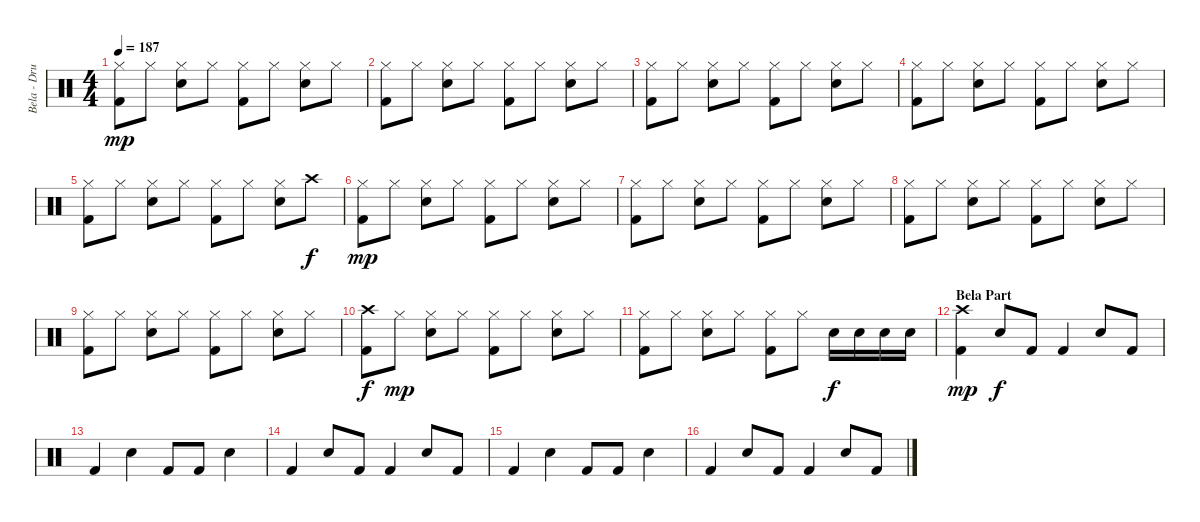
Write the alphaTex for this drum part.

\track ("Bela - Drums" "Bela - Dru") {instrument percussion}
\staff {score}
\articulation defaults
\ts (4 4)
\tempo 187
\clef neutral
\ks c
("Hi-Hat (closed)" "Kick (hit) 2").8{dy mp} "Hi-Hat (closed)".8 ("Hi-Hat (closed)" "Snare (hit) 2").8 "Hi-Hat (closed)".8 ("Hi-Hat (closed)" "Kick (hit) 2").8 "Hi-Hat (closed)".8 ("Hi-Hat (closed)" "Snare (hit) 2").8 "Hi-Hat (closed)".8 |
("Hi-Hat (closed)" "Kick (hit) 2").8 "Hi-Hat (closed)".8 ("Hi-Hat (closed)" "Snare (hit) 2").8 "Hi-Hat (closed)".8 ("Hi-Hat (closed)" "Kick (hit) 2").8 "Hi-Hat (closed)".8 ("Hi-Hat (closed)" "Snare (hit) 2").8 "Hi-Hat (closed)".8 |
("Hi-Hat (closed)" "Kick (hit) 2").8 "Hi-Hat (closed)".8 ("Hi-Hat (closed)" "Snare (hit) 2").8 "Hi-Hat (closed)".8 ("Hi-Hat (closed)" "Kick (hit) 2").8 "Hi-Hat (closed)".8 ("Hi-Hat (closed)" "Snare (hit) 2").8 "Hi-Hat (closed)".8 |
("Hi-Hat (closed)" "Kick (hit) 2").8 "Hi-Hat (closed)".8 ("Hi-Hat (closed)" "Snare (hit) 2").8 "Hi-Hat (closed)".8 ("Hi-Hat (closed)" "Kick (hit) 2").8 "Hi-Hat (closed)".8 ("Hi-Hat (closed)" "Snare (hit) 2").8 "Hi-Hat (closed)".8 |
("Hi-Hat (closed)" "Kick (hit) 2").8 "Hi-Hat (closed)".8 ("Hi-Hat (closed)" "Snare (hit) 2").8 "Hi-Hat (closed)".8 ("Hi-Hat (closed)" "Kick (hit) 2").8 "Hi-Hat (closed)".8 ("Hi-Hat (closed)" "Snare (hit) 2").8 "Crash high (hit)".8{dy f} |
("Hi-Hat (closed)" "Kick (hit) 2").8{dy mp} "Hi-Hat (closed)".8 ("Hi-Hat (closed)" "Snare (hit) 2").8 "Hi-Hat (closed)".8 ("Hi-Hat (closed)" "Kick (hit) 2").8 "Hi-Hat (closed)".8 ("Hi-Hat (closed)" "Snare (hit) 2").8 "Hi-Hat (closed)".8 |
("Hi-Hat (closed)" "Kick (hit) 2").8 "Hi-Hat (closed)".8 ("Hi-Hat (closed)" "Snare (hit) 2").8 "Hi-Hat (closed)".8 ("Hi-Hat (closed)" "Kick (hit) 2").8 "Hi-Hat (closed)".8 ("Hi-Hat (closed)" "Snare (hit) 2").8 "Hi-Hat (closed)".8 |
("Hi-Hat (closed)" "Kick (hit) 2").8 "Hi-Hat (closed)".8 ("Hi-Hat (closed)" "Snare (hit) 2").8 "Hi-Hat (closed)".8 ("Hi-Hat (closed)" "Kick (hit) 2").8 "Hi-Hat (closed)".8 ("Hi-Hat (closed)" "Snare (hit) 2").8 "Hi-Hat (closed)".8 |
("Hi-Hat (closed)" "Kick (hit) 2").8 "Hi-Hat (closed)".8 ("Hi-Hat (closed)" "Snare (hit) 2").8 "Hi-Hat (closed)".8 ("Hi-Hat (closed)" "Kick (hit) 2").8 "Hi-Hat (closed)".8 ("Hi-Hat (closed)" "Snare (hit) 2").8 "Hi-Hat (closed)".8 |
("Crash high (hit)" "Kick (hit) 2").8{dy f} "Hi-Hat (closed)".8{dy mp} ("Hi-Hat (closed)" "Snare (hit) 2").8 "Hi-Hat (closed)".8 ("Hi-Hat (closed)" "Kick (hit) 2").8 "Hi-Hat (closed)".8 ("Hi-Hat (closed)" "Snare (hit) 2").8 "Hi-Hat (closed)".8 |
("Hi-Hat (closed)" "Kick (hit) 2").8 "Hi-Hat (closed)".8 ("Hi-Hat (closed)" "Snare (hit) 2").8 "Hi-Hat (closed)".8 ("Hi-Hat (closed)" "Kick (hit) 2").8 "Hi-Hat (closed)".8 "Snare (hit) 2".16{dy f} "Snare (hit) 2".16 "Snare (hit) 2".16 "Snare (hit) 2".16 |
\section ("" "Bela Part")
("Crash high (hit)" "Kick (hit) 2").4{dy mp} "Snare (hit) 2".8{dy f} "Kick (hit) 2".8 "Kick (hit) 2".4 "Snare (hit) 2".8 "Kick (hit) 2".8 |
"Kick (hit) 2".4 "Snare (hit) 2".4 "Kick (hit) 2".8 "Kick (hit) 2".8 "Snare (hit) 2".4 |
"Kick (hit) 2".4 "Snare (hit) 2".8 "Kick (hit) 2".8 "Kick (hit) 2".4 "Snare (hit) 2".8 "Kick (hit) 2".8 |
"Kick (hit) 2".4 "Snare (hit) 2".4 "Kick (hit) 2".8 "Kick (hit) 2".8 "Snare (hit) 2".4 |
"Kick (hit) 2".4 "Snare (hit) 2".8 "Kick (hit) 2".8 "Kick (hit) 2".4 "Snare (hit) 2".8 "Kick (hit) 2".8
